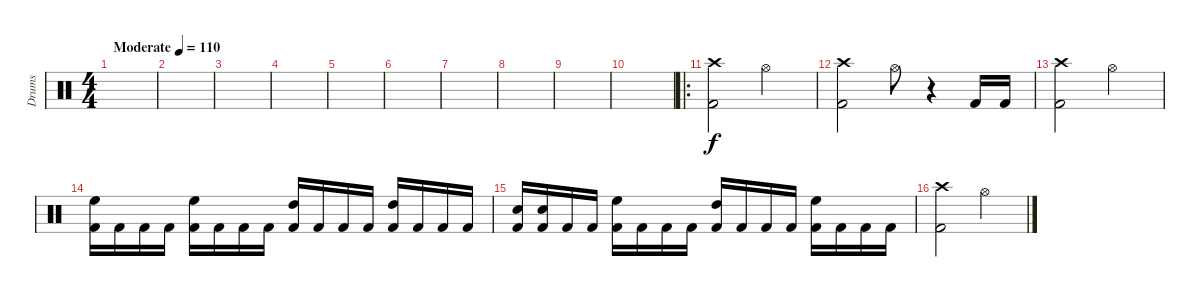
\track ("Drums" "Drums") {instrument percussion}
\staff {score}
\articulation defaults
\ts (4 4)
\tempo (110 "Moderate")
\clef neutral
\ks c
|
|
|
|
|
|
|
|
|
|
\ro
("Crash high (hit)" "Kick (hit) 2").2 "Hi-Hat (open)".2 |
("Crash high (hit)" "Kick (hit) 2").2 "Hi-Hat (open)".8 r.4 "Kick (hit) 2".16 "Kick (hit) 2".16 |
("Crash high (hit)" "Kick (hit) 2").2 "Hi-Hat (open)".2 |
("High Floor Tom (hit)" "Kick (hit) 2").16 "Kick (hit) 2".16 "Kick (hit) 2".16 "Kick (hit) 2".16 ("High Floor Tom (hit)" "Kick (hit) 2").16 "Kick (hit) 2".16 "Kick (hit) 2".16 "Kick (hit) 2".16 ("High Tom (hit)" "Kick (hit) 2").16 "Kick (hit) 2".16 "Kick (hit) 2".16 "Kick (hit) 2".16 ("High Tom (hit)" "Kick (hit) 2").16 "Kick (hit) 2".16 "Kick (hit) 2".16 "Kick (hit) 2".16 |
("Snare (hit) 2" "Kick (hit) 2").16 ("Snare (hit) 2" "Kick (hit) 2").16 "Kick (hit) 2".16 "Kick (hit) 2".16 ("High Floor Tom (hit)" "Kick (hit) 2").16 "Kick (hit) 2".16 "Kick (hit) 2".16 "Kick (hit) 2".16 ("High Tom (hit)" "Kick (hit) 2").16 "Kick (hit) 2".16 "Kick (hit) 2".16 "Kick (hit) 2".16 ("High Floor Tom (hit)" "Kick (hit) 2").16 "Kick (hit) 2".16 "Kick (hit) 2".16 "Kick (hit) 2".16 |
("Crash high (hit)" "Kick (hit) 2").2 "Hi-Hat (open)".2
